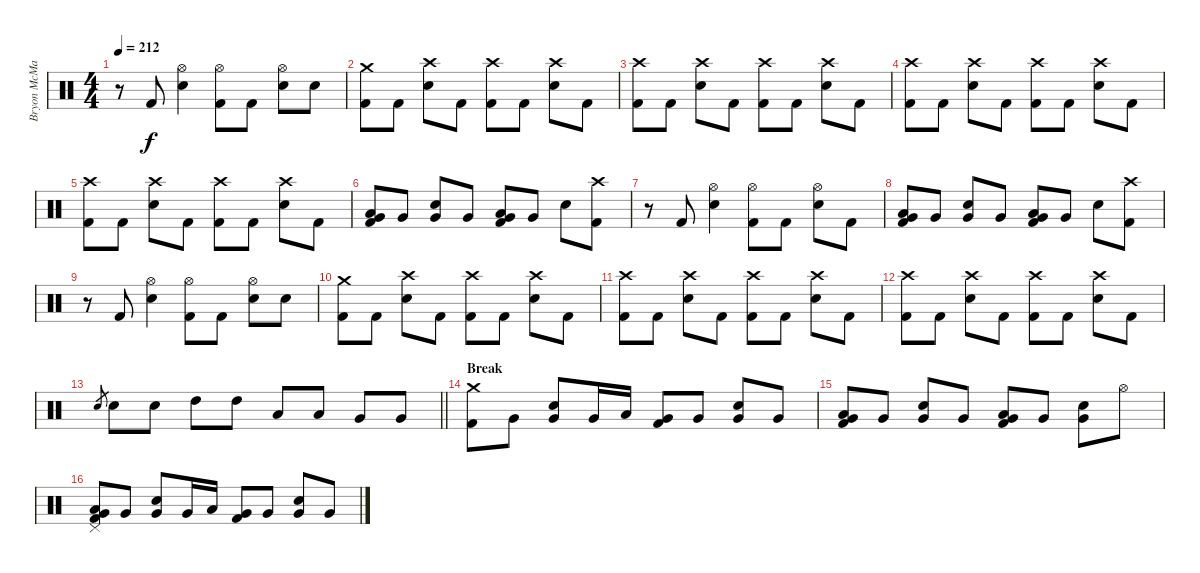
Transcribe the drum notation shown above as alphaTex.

\track ("Bryon McMackin - Drums" "Bryon McMa") {instrument percussion}
\staff {score}
\articulation defaults
\ts (4 4)
\tempo 212
\clef neutral
\ks c
r.8{dy f} "Kick (hit) 2".8 ("Hi-Hat (open)" "Electric Snare (hit)").4 ("Hi-Hat (open)" "Kick (hit) 2").8 "Kick (hit) 2".8 ("Hi-Hat (open)" "Electric Snare (hit)").8 "Electric Snare (hit)".8 |
("Crash medium (hit)" "Kick (hit) 2").8 "Kick (hit) 2".8 ("Crash high (hit)" "Electric Snare (hit)").8 "Kick (hit) 2".8 ("Crash high (hit)" "Kick (hit) 2").8 "Kick (hit) 2".8 ("Crash high (hit)" "Electric Snare (hit)").8 "Kick (hit) 2".8 |
("Crash high (hit)" "Kick (hit) 2").8 "Kick (hit) 2".8 ("Crash high (hit)" "Electric Snare (hit)").8 "Kick (hit) 2".8 ("Crash high (hit)" "Kick (hit) 2").8 "Kick (hit) 2".8 ("Crash high (hit)" "Electric Snare (hit)").8 "Kick (hit) 2".8 |
("Crash high (hit)" "Kick (hit) 2").8 "Kick (hit) 2".8 ("Crash high (hit)" "Electric Snare (hit)").8 "Kick (hit) 2".8 ("Crash high (hit)" "Kick (hit) 2").8 "Kick (hit) 2".8 ("Crash high (hit)" "Electric Snare (hit)").8 "Kick (hit) 2".8 |
("Crash high (hit)" "Kick (hit) 2").8 "Kick (hit) 2".8 ("Crash high (hit)" "Electric Snare (hit)").8 "Kick (hit) 2".8 ("Crash high (hit)" "Kick (hit) 2").8 "Kick (hit) 2".8 ("Crash high (hit)" "Electric Snare (hit)").8 "Kick (hit) 2".8 |
("Low Tom (hit)" "Very Low Tom (hit)" "Kick (hit) 2").8 "Very Low Tom (hit)".8 ("Electric Snare (hit)" "Very Low Tom (hit)").8 "Very Low Tom (hit)".8 ("Low Tom (hit)" "Very Low Tom (hit)" "Kick (hit) 2").8 "Very Low Tom (hit)".8 "Electric Snare (hit)".8 ("Crash high (hit)" "Kick (hit) 2").8 |
r.8 "Kick (hit) 2".8 ("Hi-Hat (open)" "Electric Snare (hit)").4 ("Hi-Hat (open)" "Kick (hit) 2").8 "Kick (hit) 2".8 ("Hi-Hat (open)" "Electric Snare (hit)").8 "Kick (hit) 2".8 |
("Low Tom (hit)" "Very Low Tom (hit)" "Kick (hit) 2").8 "Very Low Tom (hit)".8 ("Electric Snare (hit)" "Very Low Tom (hit)").8 "Very Low Tom (hit)".8 ("Low Tom (hit)" "Very Low Tom (hit)" "Kick (hit) 2").8 "Very Low Tom (hit)".8 "Electric Snare (hit)".8 ("Crash high (hit)" "Kick (hit) 2").8 |
r.8 "Kick (hit) 2".8 ("Hi-Hat (open)" "Electric Snare (hit)").4 ("Hi-Hat (open)" "Kick (hit) 2").8 "Kick (hit) 2".8 ("Hi-Hat (open)" "Electric Snare (hit)").8 "Electric Snare (hit)".8 |
("Crash medium (hit)" "Kick (hit) 2").8 "Kick (hit) 2".8 ("Crash high (hit)" "Electric Snare (hit)").8 "Kick (hit) 2".8 ("Crash high (hit)" "Kick (hit) 2").8 "Kick (hit) 2".8 ("Crash high (hit)" "Electric Snare (hit)").8 "Kick (hit) 2".8 |
("Crash high (hit)" "Kick (hit) 2").8 "Kick (hit) 2".8 ("Crash high (hit)" "Electric Snare (hit)").8 "Kick (hit) 2".8 ("Crash high (hit)" "Kick (hit) 2").8 "Kick (hit) 2".8 ("Crash high (hit)" "Electric Snare (hit)").8 "Kick (hit) 2".8 |
("Crash high (hit)" "Kick (hit) 2").8 "Kick (hit) 2".8 ("Crash high (hit)" "Electric Snare (hit)").8 "Kick (hit) 2".8 ("Crash high (hit)" "Kick (hit) 2").8 "Kick (hit) 2".8 ("Crash high (hit)" "Electric Snare (hit)").8 "Kick (hit) 2".8 |
\barLineRight lightlight "Electric Snare (hit)".8{gr} "Electric Snare (hit)".8 "Electric Snare (hit)".8 "High Tom (hit)".8 "High Tom (hit)".8 "Low Tom (hit)".8 "Low Tom (hit)".8 "Very Low Tom (hit)".8 "Very Low Tom (hit)".8
|
\section ("" "Break")
("Crash medium (hit)" "Kick (hit) 2").8 "Very Low Tom (hit)".8 ("Electric Snare (hit)" "Very Low Tom (hit)").8 "Very Low Tom (hit)".16 "Low Tom (hit)".16 ("Very Low Tom (hit)" "Kick (hit) 2").8 "Very Low Tom (hit)".8 ("Electric Snare (hit)" "Very Low Tom (hit)").8 "Very Low Tom (hit)".8 |
("Low Tom (hit)" "Very Low Tom (hit)" "Kick (hit) 2").8 "Very Low Tom (hit)".8 ("Electric Snare (hit)" "Very Low Tom (hit)").8 "Very Low Tom (hit)".8 ("Low Tom (hit)" "Very Low Tom (hit)" "Kick (hit) 2").8 "Very Low Tom (hit)".8 ("Electric Snare (hit)" "Very Low Tom (hit)").8 "Hi-Hat (open)".8 |
("Low Tom (hit)" "Pedal Hi-Hat (hit)" "Very Low Tom (hit)" "Kick (hit) 2").8 "Very Low Tom (hit)".8 ("Electric Snare (hit)" "Very Low Tom (hit)").8 "Very Low Tom (hit)".16 "Low Tom (hit)".16 ("Very Low Tom (hit)" "Kick (hit) 2").8 "Very Low Tom (hit)".8 ("Electric Snare (hit)" "Very Low Tom (hit)").8 "Very Low Tom (hit)".8
